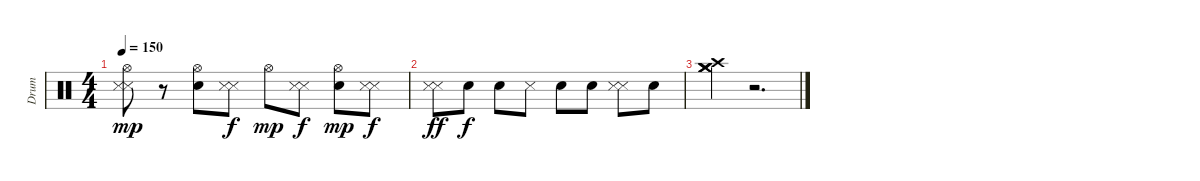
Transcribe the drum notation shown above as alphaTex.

\track ("Drum" "Drum") {instrument percussion}
\staff {score}
\articulation defaults
\ts (4 4)
\tempo 150
\clef neutral
\ks c
("Metronome (hit)" "Metronome (hit)" "Hi-Hat (open)").8{dy mp} r.8 ("Electric Snare (hit)" "Hi-Hat (open)").8 ("Metronome (hit)" "Metronome (hit)").8{dy f} "Hi-Hat (open)".8{dy mp} ("Metronome (hit)" "Metronome (hit)").8{dy f} ("Electric Snare (hit)" "Hi-Hat (open)").8{dy mp} ("Metronome (hit)" "Metronome (hit)").8{dy f} |
("Metronome (hit)" "Metronome (hit)").8{dy ff} "Electric Snare (hit)".8{dy f} "Electric Snare (hit)".8 "Metronome (hit)".8 "Electric Snare (hit)".8 "Electric Snare (hit)".8 ("Metronome (hit)" "Metronome (hit)").8 "Electric Snare (hit)".8 |
("Crash medium (hit)" "Crash medium (hit)" "Crash medium (hit)" "Crash high (hit)").4 r.2{d}
